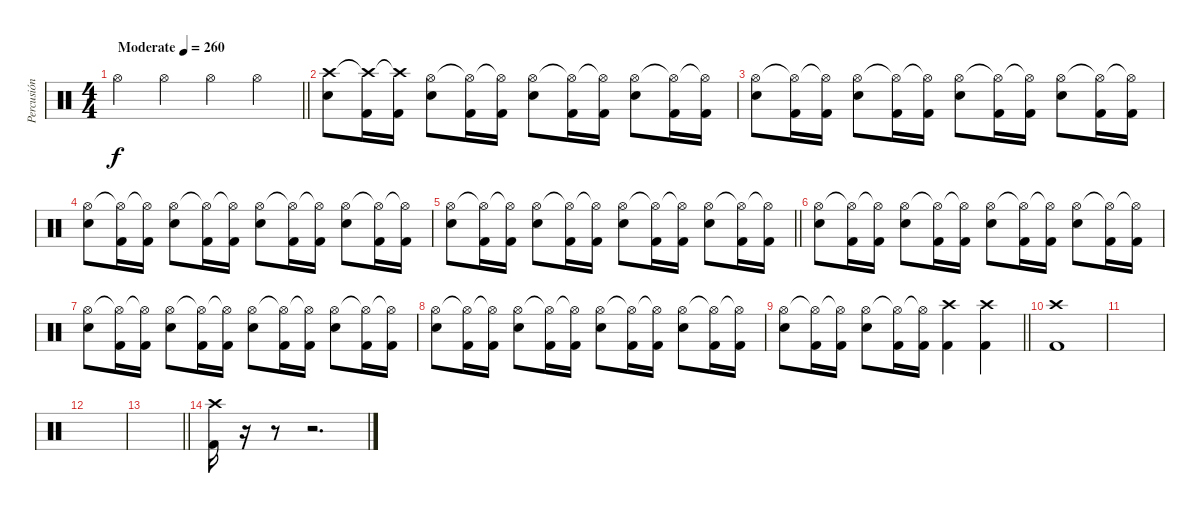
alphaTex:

\track ("Percusión" "Percusión") {instrument percussion}
\staff {score}
\articulation defaults
\ts (4 4)
\tempo (260 "Moderate")
\clef neutral
\barLineRight lightlight
\ks c "Hi-Hat (open)".4{dy f} "Hi-Hat (open)".4 "Hi-Hat (open)".4 "Hi-Hat (open)".4
|
("Snare (hit) 2" "Crash high (hit)").8 ("Kick (hit) 2" "Crash high (hit)"{t}).16 ("Kick (hit) 2" "Crash high (hit)"{t}).16 ("Snare (hit) 2" "Hi-Hat (open)").8 ("Kick (hit) 2" "Hi-Hat (open)"{t}).16 ("Kick (hit) 2" "Hi-Hat (open)"{t}).16 ("Snare (hit) 2" "Hi-Hat (open)").8 ("Kick (hit) 2" "Hi-Hat (open)"{t}).16 ("Kick (hit) 2" "Hi-Hat (open)"{t}).16 ("Snare (hit) 2" "Hi-Hat (open)").8 ("Kick (hit) 2" "Hi-Hat (open)"{t}).16 ("Kick (hit) 2" "Hi-Hat (open)"{t}).16 |
("Snare (hit) 2" "Hi-Hat (open)").8 ("Kick (hit) 2" "Hi-Hat (open)"{t}).16 ("Kick (hit) 2" "Hi-Hat (open)"{t}).16 ("Snare (hit) 2" "Hi-Hat (open)").8 ("Kick (hit) 2" "Hi-Hat (open)"{t}).16 ("Kick (hit) 2" "Hi-Hat (open)"{t}).16 ("Snare (hit) 2" "Hi-Hat (open)").8 ("Kick (hit) 2" "Hi-Hat (open)"{t}).16 ("Kick (hit) 2" "Hi-Hat (open)"{t}).16 ("Snare (hit) 2" "Hi-Hat (open)").8 ("Kick (hit) 2" "Hi-Hat (open)"{t}).16 ("Kick (hit) 2" "Hi-Hat (open)"{t}).16 |
("Snare (hit) 2" "Hi-Hat (open)").8 ("Kick (hit) 2" "Hi-Hat (open)"{t}).16 ("Kick (hit) 2" "Hi-Hat (open)"{t}).16 ("Snare (hit) 2" "Hi-Hat (open)").8 ("Kick (hit) 2" "Hi-Hat (open)"{t}).16 ("Kick (hit) 2" "Hi-Hat (open)"{t}).16 ("Snare (hit) 2" "Hi-Hat (open)").8 ("Kick (hit) 2" "Hi-Hat (open)"{t}).16 ("Kick (hit) 2" "Hi-Hat (open)"{t}).16 ("Snare (hit) 2" "Hi-Hat (open)").8 ("Kick (hit) 2" "Hi-Hat (open)"{t}).16 ("Kick (hit) 2" "Hi-Hat (open)"{t}).16 |
\barLineRight lightlight
("Snare (hit) 2" "Hi-Hat (open)").8 ("Kick (hit) 2" "Hi-Hat (open)"{t}).16 ("Kick (hit) 2" "Hi-Hat (open)"{t}).16 ("Snare (hit) 2" "Hi-Hat (open)").8 ("Kick (hit) 2" "Hi-Hat (open)"{t}).16 ("Kick (hit) 2" "Hi-Hat (open)"{t}).16 ("Snare (hit) 2" "Hi-Hat (open)").8 ("Kick (hit) 2" "Hi-Hat (open)"{t}).16 ("Kick (hit) 2" "Hi-Hat (open)"{t}).16 ("Snare (hit) 2" "Hi-Hat (open)").8 ("Kick (hit) 2" "Hi-Hat (open)"{t}).16 ("Kick (hit) 2" "Hi-Hat (open)"{t}).16 |
("Snare (hit) 2" "Hi-Hat (open)").8 ("Kick (hit) 2" "Hi-Hat (open)"{t}).16 ("Kick (hit) 2" "Hi-Hat (open)"{t}).16 ("Snare (hit) 2" "Hi-Hat (open)").8 ("Kick (hit) 2" "Hi-Hat (open)"{t}).16 ("Kick (hit) 2" "Hi-Hat (open)"{t}).16 ("Snare (hit) 2" "Hi-Hat (open)").8 ("Kick (hit) 2" "Hi-Hat (open)"{t}).16 ("Kick (hit) 2" "Hi-Hat (open)"{t}).16 ("Snare (hit) 2" "Hi-Hat (open)").8 ("Kick (hit) 2" "Hi-Hat (open)"{t}).16 ("Kick (hit) 2" "Hi-Hat (open)"{t}).16 |
("Snare (hit) 2" "Hi-Hat (open)").8 ("Kick (hit) 2" "Hi-Hat (open)"{t}).16 ("Kick (hit) 2" "Hi-Hat (open)"{t}).16 ("Snare (hit) 2" "Hi-Hat (open)").8 ("Kick (hit) 2" "Hi-Hat (open)"{t}).16 ("Kick (hit) 2" "Hi-Hat (open)"{t}).16 ("Snare (hit) 2" "Hi-Hat (open)").8 ("Kick (hit) 2" "Hi-Hat (open)"{t}).16 ("Kick (hit) 2" "Hi-Hat (open)"{t}).16 ("Snare (hit) 2" "Hi-Hat (open)").8 ("Kick (hit) 2" "Hi-Hat (open)"{t}).16 ("Kick (hit) 2" "Hi-Hat (open)"{t}).16 |
("Snare (hit) 2" "Hi-Hat (open)").8 ("Kick (hit) 2" "Hi-Hat (open)"{t}).16 ("Kick (hit) 2" "Hi-Hat (open)"{t}).16 ("Snare (hit) 2" "Hi-Hat (open)").8 ("Kick (hit) 2" "Hi-Hat (open)"{t}).16 ("Kick (hit) 2" "Hi-Hat (open)"{t}).16 ("Snare (hit) 2" "Hi-Hat (open)").8 ("Kick (hit) 2" "Hi-Hat (open)"{t}).16 ("Kick (hit) 2" "Hi-Hat (open)"{t}).16 ("Snare (hit) 2" "Hi-Hat (open)").8 ("Kick (hit) 2" "Hi-Hat (open)"{t}).16 ("Kick (hit) 2" "Hi-Hat (open)"{t}).16 |
\barLineRight lightlight
("Snare (hit) 2" "Hi-Hat (open)").8 ("Kick (hit) 2" "Hi-Hat (open)"{t}).16 ("Kick (hit) 2" "Hi-Hat (open)"{t}).16 ("Snare (hit) 2" "Hi-Hat (open)").8 ("Kick (hit) 2" "Hi-Hat (open)"{t}).16 ("Kick (hit) 2" "Hi-Hat (open)"{t}).16 ("Kick (hit) 2" "Crash high (hit)").4 ("Kick (hit) 2" "Crash high (hit)").4 |
("Kick (hit) 2" "Crash high (hit)").1 |
|
|
\barLineRight lightlight
|
("Kick (hit) 2" "Crash high (hit)").16 r.16 r.8 r.2{d}
